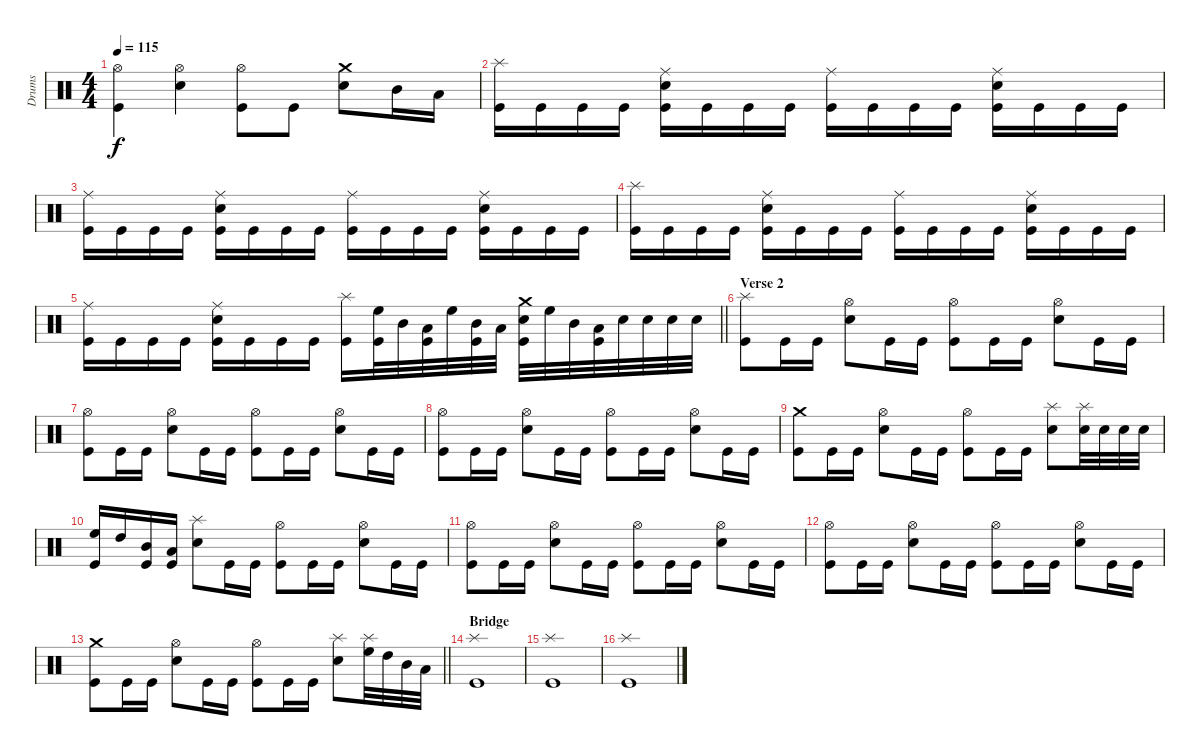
\track ("Drums" "Drums") {instrument percussion}
\staff {score}
\articulation defaults
\ts (4 4)
\tempo 115
\clef neutral
\ks c
("Hi-Hat (open)" "Kick (hit)").4{dy f} ("Hi-Hat (open)" "Snare (hit) 2").4 ("Hi-Hat (open)" "Kick (hit)").8 "Kick (hit)".8 ("Crash medium (hit)" "Snare (hit) 2").8 "Mid Tom (hit)".16 "Low Tom (hit)".16 |
("Splash (hit)" "Kick (hit)").16 "Kick (hit)".16 "Kick (hit)".16 "Kick (hit)".16 ("Ride (middle)" "Snare (hit) 2" "Kick (hit)").16 "Kick (hit)".16 "Kick (hit)".16 "Kick (hit)".16 ("Ride (middle)" "Kick (hit)").16 "Kick (hit)".16 "Kick (hit)".16 "Kick (hit)".16 ("Ride (middle)" "Snare (hit) 2" "Kick (hit)").16 "Kick (hit)".16 "Kick (hit)".16 "Kick (hit)".16 |
("Ride (middle)" "Kick (hit)").16 "Kick (hit)".16 "Kick (hit)".16 "Kick (hit)".16 ("Ride (middle)" "Snare (hit) 2" "Kick (hit)").16 "Kick (hit)".16 "Kick (hit)".16 "Kick (hit)".16 ("Ride (middle)" "Kick (hit)").16 "Kick (hit)".16 "Kick (hit)".16 "Kick (hit)".16 ("Ride (middle)" "Snare (hit) 2" "Kick (hit)").16 "Kick (hit)".16 "Kick (hit)".16 "Kick (hit)".16 |
("Splash (hit)" "Kick (hit)").16 "Kick (hit)".16 "Kick (hit)".16 "Kick (hit)".16 ("Ride (middle)" "Snare (hit) 2" "Kick (hit)").16 "Kick (hit)".16 "Kick (hit)".16 "Kick (hit)".16 ("Ride (middle)" "Kick (hit)").16 "Kick (hit)".16 "Kick (hit)".16 "Kick (hit)".16 ("Ride (middle)" "Snare (hit) 2" "Kick (hit)").16 "Kick (hit)".16 "Kick (hit)".16 "Kick (hit)".16 |
\barLineRight lightlight
("Ride (middle)" "Kick (hit)").16 "Kick (hit)".16 "Kick (hit)".16 "Kick (hit)".16 ("Ride (middle)" "Snare (hit) 2" "Kick (hit)").16 "Kick (hit)".16 "Kick (hit)".16 "Kick (hit)".16 ("Splash (hit)" "Kick (hit)").16 ("High Floor Tom (hit)" "Kick (hit)").32 "Mid Tom (hit)".32 ("Low Tom (hit)" "Kick (hit)").32 "High Floor Tom (hit)".32 ("Mid Tom (hit)" "Kick (hit)").32 "Low Tom (hit)".32 ("Crash medium (hit)" "Snare (hit) 2" "Kick (hit)").32 "High Floor Tom (hit)".32 "Mid Tom (hit)".32 ("Low Tom (hit)" "Kick (hit)").32 "Snare (hit) 2".32 "Snare (hit) 2".32 "Snare (hit) 2".32 "Snare (hit) 2".32 |
\section ("" "Verse 2")
("Splash (hit)" "Kick (hit)").8 "Kick (hit)".16 "Kick (hit)".16 ("Hi-Hat (open)" "Snare (hit) 2").8 "Kick (hit)".16 "Kick (hit)".16 ("Hi-Hat (open)" "Kick (hit)").8 "Kick (hit)".16 "Kick (hit)".16 ("Hi-Hat (open)" "Snare (hit) 2").8 "Kick (hit)".16 "Kick (hit)".16 |
("Hi-Hat (open)" "Kick (hit)").8 "Kick (hit)".16 "Kick (hit)".16 ("Hi-Hat (open)" "Snare (hit) 2").8 "Kick (hit)".16 "Kick (hit)".16 ("Hi-Hat (open)" "Kick (hit)").8 "Kick (hit)".16 "Kick (hit)".16 ("Hi-Hat (open)" "Snare (hit) 2").8 "Kick (hit)".16 "Kick (hit)".16 |
("Hi-Hat (open)" "Kick (hit)").8 "Kick (hit)".16 "Kick (hit)".16 ("Hi-Hat (open)" "Snare (hit) 2").8 "Kick (hit)".16 "Kick (hit)".16 ("Hi-Hat (open)" "Kick (hit)").8 "Kick (hit)".16 "Kick (hit)".16 ("Hi-Hat (open)" "Snare (hit) 2").8 "Kick (hit)".16 "Kick (hit)".16 |
("Crash medium (hit)" "Kick (hit)").8 "Kick (hit)".16 "Kick (hit)".16 ("Hi-Hat (open)" "Snare (hit) 2").8 "Kick (hit)".16 "Kick (hit)".16 ("Hi-Hat (open)" "Kick (hit)").8 "Kick (hit)".16 "Kick (hit)".16 ("Splash (hit)" "Snare (hit) 2").8 ("Splash (hit)" "Snare (hit) 2").32 "Snare (hit) 2".32 "Snare (hit) 2".32 "Snare (hit) 2".32 |
("High Floor Tom (hit)" "Kick (hit)").16 "High Tom (hit)".16 ("Mid Tom (hit)" "Kick (hit)").16 ("Low Tom (hit)" "Kick (hit)").16 ("Splash (hit)" "Snare (hit) 2").8 "Kick (hit)".16 "Kick (hit)".16 ("Hi-Hat (open)" "Kick (hit)").8 "Kick (hit)".16 "Kick (hit)".16 ("Hi-Hat (open)" "Snare (hit) 2").8 "Kick (hit)".16 "Kick (hit)".16 |
("Hi-Hat (open)" "Kick (hit)").8 "Kick (hit)".16 "Kick (hit)".16 ("Hi-Hat (open)" "Snare (hit) 2").8 "Kick (hit)".16 "Kick (hit)".16 ("Hi-Hat (open)" "Kick (hit)").8 "Kick (hit)".16 "Kick (hit)".16 ("Hi-Hat (open)" "Snare (hit) 2").8 "Kick (hit)".16 "Kick (hit)".16 |
("Hi-Hat (open)" "Kick (hit)").8 "Kick (hit)".16 "Kick (hit)".16 ("Hi-Hat (open)" "Snare (hit) 2").8 "Kick (hit)".16 "Kick (hit)".16 ("Hi-Hat (open)" "Kick (hit)").8 "Kick (hit)".16 "Kick (hit)".16 ("Hi-Hat (open)" "Snare (hit) 2").8 "Kick (hit)".16 "Kick (hit)".16 |
\barLineRight lightlight
("Crash medium (hit)" "Kick (hit)").8 "Kick (hit)".16 "Kick (hit)".16 ("Hi-Hat (open)" "Snare (hit) 2").8 "Kick (hit)".16 "Kick (hit)".16 ("Hi-Hat (open)" "Kick (hit)").8 "Kick (hit)".16 "Kick (hit)".16 ("Splash (hit)" "Snare (hit) 2").8 ("Splash (hit)" "High Floor Tom (hit)").32 "High Tom (hit)".32 "Mid Tom (hit)".32 "Low Tom (hit)".32 |
\section ("" "Bridge")
("Splash (hit)" "Kick (hit)").1 |
("Splash (hit)" "Kick (hit)").1 |
("Splash (hit)" "Kick (hit)").1
